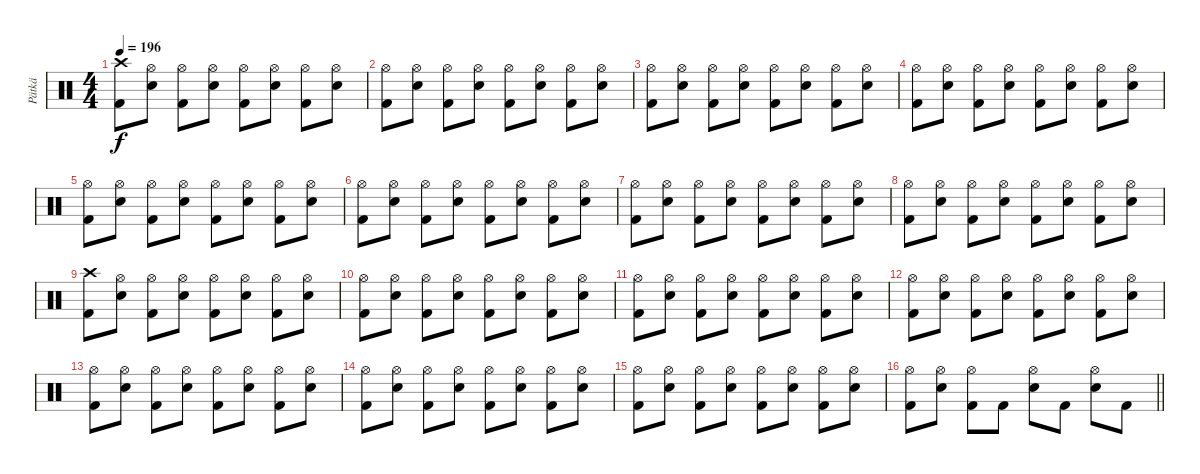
\track ("Pätkä" "Pätkä") {instrument percussion}
\staff {score}
\articulation defaults
\ts (4 4)
\tempo 196
\clef neutral
\ks c
("Crash high (hit)" "Kick (hit) 2").8{dy f} ("Hi-Hat (open)" "Electric Snare (hit)").8 ("Hi-Hat (open)" "Kick (hit) 2").8 ("Hi-Hat (open)" "Electric Snare (hit)").8 ("Hi-Hat (open)" "Kick (hit) 2").8 ("Hi-Hat (open)" "Electric Snare (hit)").8 ("Hi-Hat (open)" "Kick (hit) 2").8 ("Hi-Hat (open)" "Electric Snare (hit)").8 |
("Hi-Hat (open)" "Kick (hit) 2").8 ("Hi-Hat (open)" "Electric Snare (hit)").8 ("Hi-Hat (open)" "Kick (hit) 2").8 ("Hi-Hat (open)" "Electric Snare (hit)").8 ("Hi-Hat (open)" "Kick (hit) 2").8 ("Hi-Hat (open)" "Electric Snare (hit)").8 ("Hi-Hat (open)" "Kick (hit) 2").8 ("Hi-Hat (open)" "Electric Snare (hit)").8 |
("Hi-Hat (open)" "Kick (hit) 2").8 ("Hi-Hat (open)" "Electric Snare (hit)").8 ("Hi-Hat (open)" "Kick (hit) 2").8 ("Hi-Hat (open)" "Electric Snare (hit)").8 ("Hi-Hat (open)" "Kick (hit) 2").8 ("Hi-Hat (open)" "Electric Snare (hit)").8 ("Hi-Hat (open)" "Kick (hit) 2").8 ("Hi-Hat (open)" "Electric Snare (hit)").8 |
("Hi-Hat (open)" "Kick (hit) 2").8 ("Hi-Hat (open)" "Electric Snare (hit)").8 ("Hi-Hat (open)" "Kick (hit) 2").8 ("Hi-Hat (open)" "Electric Snare (hit)").8 ("Hi-Hat (open)" "Kick (hit) 2").8 ("Hi-Hat (open)" "Electric Snare (hit)").8 ("Hi-Hat (open)" "Kick (hit) 2").8 ("Hi-Hat (open)" "Electric Snare (hit)").8 |
("Hi-Hat (open)" "Kick (hit) 2").8 ("Hi-Hat (open)" "Electric Snare (hit)").8 ("Hi-Hat (open)" "Kick (hit) 2").8 ("Hi-Hat (open)" "Electric Snare (hit)").8 ("Hi-Hat (open)" "Kick (hit) 2").8 ("Hi-Hat (open)" "Electric Snare (hit)").8 ("Hi-Hat (open)" "Kick (hit) 2").8 ("Hi-Hat (open)" "Electric Snare (hit)").8 |
("Hi-Hat (open)" "Kick (hit) 2").8 ("Hi-Hat (open)" "Electric Snare (hit)").8 ("Hi-Hat (open)" "Kick (hit) 2").8 ("Hi-Hat (open)" "Electric Snare (hit)").8 ("Hi-Hat (open)" "Kick (hit) 2").8 ("Hi-Hat (open)" "Electric Snare (hit)").8 ("Hi-Hat (open)" "Kick (hit) 2").8 ("Hi-Hat (open)" "Electric Snare (hit)").8 |
("Hi-Hat (open)" "Kick (hit) 2").8 ("Hi-Hat (open)" "Electric Snare (hit)").8 ("Hi-Hat (open)" "Kick (hit) 2").8 ("Hi-Hat (open)" "Electric Snare (hit)").8 ("Hi-Hat (open)" "Kick (hit) 2").8 ("Hi-Hat (open)" "Electric Snare (hit)").8 ("Hi-Hat (open)" "Kick (hit) 2").8 ("Hi-Hat (open)" "Electric Snare (hit)").8 |
("Hi-Hat (open)" "Kick (hit) 2").8 ("Hi-Hat (open)" "Electric Snare (hit)").8 ("Hi-Hat (open)" "Kick (hit) 2").8 ("Hi-Hat (open)" "Electric Snare (hit)").8 ("Hi-Hat (open)" "Kick (hit) 2").8 ("Hi-Hat (open)" "Electric Snare (hit)").8 ("Hi-Hat (open)" "Kick (hit) 2").8 ("Hi-Hat (open)" "Electric Snare (hit)").8 |
("Crash high (hit)" "Kick (hit) 2").8 ("Hi-Hat (open)" "Electric Snare (hit)").8 ("Hi-Hat (open)" "Kick (hit) 2").8 ("Hi-Hat (open)" "Electric Snare (hit)").8 ("Hi-Hat (open)" "Kick (hit) 2").8 ("Hi-Hat (open)" "Electric Snare (hit)").8 ("Hi-Hat (open)" "Kick (hit) 2").8 ("Hi-Hat (open)" "Electric Snare (hit)").8 |
("Hi-Hat (open)" "Kick (hit) 2").8 ("Hi-Hat (open)" "Electric Snare (hit)").8 ("Hi-Hat (open)" "Kick (hit) 2").8 ("Hi-Hat (open)" "Electric Snare (hit)").8 ("Hi-Hat (open)" "Kick (hit) 2").8 ("Hi-Hat (open)" "Electric Snare (hit)").8 ("Hi-Hat (open)" "Kick (hit) 2").8 ("Hi-Hat (open)" "Electric Snare (hit)").8 |
("Hi-Hat (open)" "Kick (hit) 2").8 ("Hi-Hat (open)" "Electric Snare (hit)").8 ("Hi-Hat (open)" "Kick (hit) 2").8 ("Hi-Hat (open)" "Electric Snare (hit)").8 ("Hi-Hat (open)" "Kick (hit) 2").8 ("Hi-Hat (open)" "Electric Snare (hit)").8 ("Hi-Hat (open)" "Kick (hit) 2").8 ("Hi-Hat (open)" "Electric Snare (hit)").8 |
("Hi-Hat (open)" "Kick (hit) 2").8 ("Hi-Hat (open)" "Electric Snare (hit)").8 ("Hi-Hat (open)" "Kick (hit) 2").8 ("Hi-Hat (open)" "Electric Snare (hit)").8 ("Hi-Hat (open)" "Kick (hit) 2").8 ("Hi-Hat (open)" "Electric Snare (hit)").8 ("Hi-Hat (open)" "Kick (hit) 2").8 ("Hi-Hat (open)" "Electric Snare (hit)").8 |
("Hi-Hat (open)" "Kick (hit) 2").8 ("Hi-Hat (open)" "Electric Snare (hit)").8 ("Hi-Hat (open)" "Kick (hit) 2").8 ("Hi-Hat (open)" "Electric Snare (hit)").8 ("Hi-Hat (open)" "Kick (hit) 2").8 ("Hi-Hat (open)" "Electric Snare (hit)").8 ("Hi-Hat (open)" "Kick (hit) 2").8 ("Hi-Hat (open)" "Electric Snare (hit)").8 |
("Hi-Hat (open)" "Kick (hit) 2").8 ("Hi-Hat (open)" "Electric Snare (hit)").8 ("Hi-Hat (open)" "Kick (hit) 2").8 ("Hi-Hat (open)" "Electric Snare (hit)").8 ("Hi-Hat (open)" "Kick (hit) 2").8 ("Hi-Hat (open)" "Electric Snare (hit)").8 ("Hi-Hat (open)" "Kick (hit) 2").8 ("Hi-Hat (open)" "Electric Snare (hit)").8 |
("Hi-Hat (open)" "Kick (hit) 2").8 ("Hi-Hat (open)" "Electric Snare (hit)").8 ("Hi-Hat (open)" "Kick (hit) 2").8 ("Hi-Hat (open)" "Electric Snare (hit)").8 ("Hi-Hat (open)" "Kick (hit) 2").8 ("Hi-Hat (open)" "Electric Snare (hit)").8 ("Hi-Hat (open)" "Kick (hit) 2").8 ("Hi-Hat (open)" "Electric Snare (hit)").8 |
\barLineRight lightlight
("Hi-Hat (open)" "Kick (hit) 2").8 ("Hi-Hat (open)" "Electric Snare (hit)").8 ("Hi-Hat (open)" "Kick (hit) 2").8 "Kick (hit) 2".8 ("Hi-Hat (open)" "Electric Snare (hit)").8 "Kick (hit) 2".8 ("Hi-Hat (open)" "Electric Snare (hit)").8 "Kick (hit) 2".8
